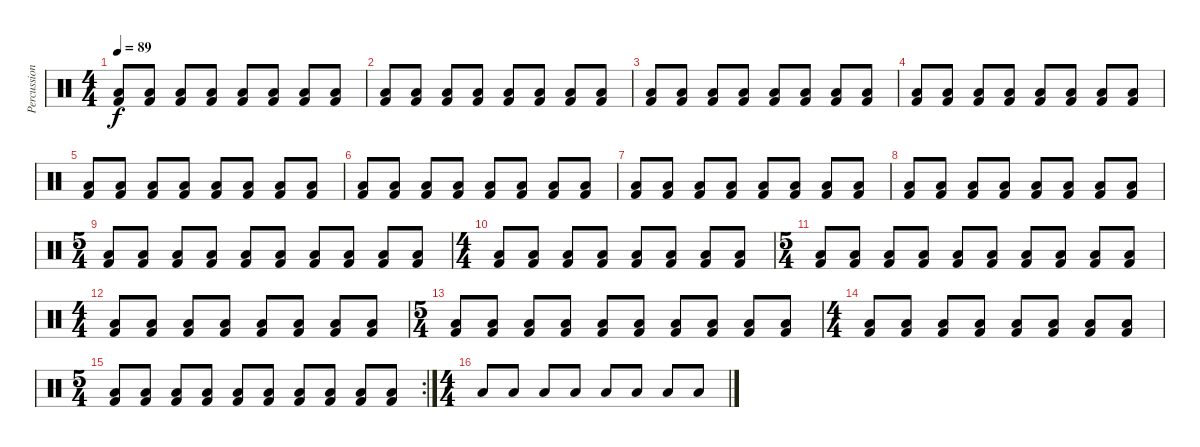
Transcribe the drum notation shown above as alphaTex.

\track ("Percussion" "Percussion") {instrument percussion}
\staff {score}
\articulation defaults
\ts (4 4)
\tempo 89
\clef neutral
\ks c
("Kick (hit) 2" "Low Floor Tom (hit)").8{dy f} ("Kick (hit) 2" "Low Floor Tom (hit)").8 ("Kick (hit) 2" "Low Floor Tom (hit)").8 ("Kick (hit) 2" "Low Floor Tom (hit)").8 ("Kick (hit) 2" "Low Floor Tom (hit)").8 ("Kick (hit) 2" "Low Floor Tom (hit)").8 ("Kick (hit) 2" "Low Floor Tom (hit)").8 ("Kick (hit) 2" "Low Floor Tom (hit)").8 |
("Kick (hit) 2" "Low Floor Tom (hit)").8 ("Kick (hit) 2" "Low Floor Tom (hit)").8 ("Kick (hit) 2" "Low Floor Tom (hit)").8 ("Kick (hit) 2" "Low Floor Tom (hit)").8 ("Kick (hit) 2" "Low Floor Tom (hit)").8 ("Kick (hit) 2" "Low Floor Tom (hit)").8 ("Kick (hit) 2" "Low Floor Tom (hit)").8 ("Kick (hit) 2" "Low Floor Tom (hit)").8 |
("Kick (hit) 2" "Low Floor Tom (hit)").8 ("Kick (hit) 2" "Low Floor Tom (hit)").8 ("Kick (hit) 2" "Low Floor Tom (hit)").8 ("Kick (hit) 2" "Low Floor Tom (hit)").8 ("Kick (hit) 2" "Low Floor Tom (hit)").8 ("Kick (hit) 2" "Low Floor Tom (hit)").8 ("Kick (hit) 2" "Low Floor Tom (hit)").8 ("Kick (hit) 2" "Low Floor Tom (hit)").8 |
("Kick (hit) 2" "Low Floor Tom (hit)").8 ("Kick (hit) 2" "Low Floor Tom (hit)").8 ("Kick (hit) 2" "Low Floor Tom (hit)").8 ("Kick (hit) 2" "Low Floor Tom (hit)").8 ("Kick (hit) 2" "Low Floor Tom (hit)").8 ("Kick (hit) 2" "Low Floor Tom (hit)").8 ("Kick (hit) 2" "Low Floor Tom (hit)").8 ("Kick (hit) 2" "Low Floor Tom (hit)").8 |
("Kick (hit) 2" "Low Floor Tom (hit)").8 ("Kick (hit) 2" "Low Floor Tom (hit)").8 ("Kick (hit) 2" "Low Floor Tom (hit)").8 ("Kick (hit) 2" "Low Floor Tom (hit)").8 ("Kick (hit) 2" "Low Floor Tom (hit)").8 ("Kick (hit) 2" "Low Floor Tom (hit)").8 ("Kick (hit) 2" "Low Floor Tom (hit)").8 ("Kick (hit) 2" "Low Floor Tom (hit)").8 |
("Kick (hit) 2" "Low Floor Tom (hit)").8 ("Kick (hit) 2" "Low Floor Tom (hit)").8 ("Kick (hit) 2" "Low Floor Tom (hit)").8 ("Kick (hit) 2" "Low Floor Tom (hit)").8 ("Kick (hit) 2" "Low Floor Tom (hit)").8 ("Kick (hit) 2" "Low Floor Tom (hit)").8 ("Kick (hit) 2" "Low Floor Tom (hit)").8 ("Kick (hit) 2" "Low Floor Tom (hit)").8 |
("Kick (hit) 2" "Low Floor Tom (hit)").8 ("Kick (hit) 2" "Low Floor Tom (hit)").8 ("Kick (hit) 2" "Low Floor Tom (hit)").8 ("Kick (hit) 2" "Low Floor Tom (hit)").8 ("Kick (hit) 2" "Low Floor Tom (hit)").8 ("Kick (hit) 2" "Low Floor Tom (hit)").8 ("Kick (hit) 2" "Low Floor Tom (hit)").8 ("Kick (hit) 2" "Low Floor Tom (hit)").8 |
("Kick (hit) 2" "Low Floor Tom (hit)").8 ("Kick (hit) 2" "Low Floor Tom (hit)").8 ("Kick (hit) 2" "Low Floor Tom (hit)").8 ("Kick (hit) 2" "Low Floor Tom (hit)").8 ("Kick (hit) 2" "Low Floor Tom (hit)").8 ("Kick (hit) 2" "Low Floor Tom (hit)").8 ("Kick (hit) 2" "Low Floor Tom (hit)").8 ("Kick (hit) 2" "Low Floor Tom (hit)").8 |
\ts (5 4)
("Kick (hit) 2" "Low Floor Tom (hit)").8 ("Kick (hit) 2" "Low Floor Tom (hit)").8 ("Kick (hit) 2" "Low Floor Tom (hit)").8 ("Kick (hit) 2" "Low Floor Tom (hit)").8 ("Kick (hit) 2" "Low Floor Tom (hit)").8 ("Kick (hit) 2" "Low Floor Tom (hit)").8 ("Kick (hit) 2" "Low Floor Tom (hit)").8 ("Kick (hit) 2" "Low Floor Tom (hit)").8 ("Kick (hit) 2" "Low Floor Tom (hit)").8 ("Kick (hit) 2" "Low Floor Tom (hit)").8 |
\ts (4 4)
("Kick (hit) 2" "Low Floor Tom (hit)").8 ("Kick (hit) 2" "Low Floor Tom (hit)").8 ("Kick (hit) 2" "Low Floor Tom (hit)").8 ("Kick (hit) 2" "Low Floor Tom (hit)").8 ("Kick (hit) 2" "Low Floor Tom (hit)").8 ("Kick (hit) 2" "Low Floor Tom (hit)").8 ("Kick (hit) 2" "Low Floor Tom (hit)").8 ("Kick (hit) 2" "Low Floor Tom (hit)").8 |
\ts (5 4)
("Kick (hit) 2" "Low Floor Tom (hit)").8 ("Kick (hit) 2" "Low Floor Tom (hit)").8 ("Kick (hit) 2" "Low Floor Tom (hit)").8 ("Kick (hit) 2" "Low Floor Tom (hit)").8 ("Kick (hit) 2" "Low Floor Tom (hit)").8 ("Kick (hit) 2" "Low Floor Tom (hit)").8 ("Kick (hit) 2" "Low Floor Tom (hit)").8 ("Kick (hit) 2" "Low Floor Tom (hit)").8 ("Kick (hit) 2" "Low Floor Tom (hit)").8 ("Kick (hit) 2" "Low Floor Tom (hit)").8 |
\ts (4 4)
("Kick (hit) 2" "Low Floor Tom (hit)").8 ("Kick (hit) 2" "Low Floor Tom (hit)").8 ("Kick (hit) 2" "Low Floor Tom (hit)").8 ("Kick (hit) 2" "Low Floor Tom (hit)").8 ("Kick (hit) 2" "Low Floor Tom (hit)").8 ("Kick (hit) 2" "Low Floor Tom (hit)").8 ("Kick (hit) 2" "Low Floor Tom (hit)").8 ("Kick (hit) 2" "Low Floor Tom (hit)").8 |
\ts (5 4)
("Kick (hit) 2" "Low Floor Tom (hit)").8 ("Kick (hit) 2" "Low Floor Tom (hit)").8 ("Kick (hit) 2" "Low Floor Tom (hit)").8 ("Kick (hit) 2" "Low Floor Tom (hit)").8 ("Kick (hit) 2" "Low Floor Tom (hit)").8 ("Kick (hit) 2" "Low Floor Tom (hit)").8 ("Kick (hit) 2" "Low Floor Tom (hit)").8 ("Kick (hit) 2" "Low Floor Tom (hit)").8 ("Kick (hit) 2" "Low Floor Tom (hit)").8 ("Kick (hit) 2" "Low Floor Tom (hit)").8 |
\ts (4 4)
("Kick (hit) 2" "Low Floor Tom (hit)").8 ("Kick (hit) 2" "Low Floor Tom (hit)").8 ("Kick (hit) 2" "Low Floor Tom (hit)").8 ("Kick (hit) 2" "Low Floor Tom (hit)").8 ("Kick (hit) 2" "Low Floor Tom (hit)").8 ("Kick (hit) 2" "Low Floor Tom (hit)").8 ("Kick (hit) 2" "Low Floor Tom (hit)").8 ("Kick (hit) 2" "Low Floor Tom (hit)").8 |
\rc 2
\ts (5 4)
("Kick (hit) 2" "Low Floor Tom (hit)").8 ("Kick (hit) 2" "Low Floor Tom (hit)").8 ("Kick (hit) 2" "Low Floor Tom (hit)").8 ("Kick (hit) 2" "Low Floor Tom (hit)").8 ("Kick (hit) 2" "Low Floor Tom (hit)").8 ("Kick (hit) 2" "Low Floor Tom (hit)").8 ("Kick (hit) 2" "Low Floor Tom (hit)").8 ("Kick (hit) 2" "Low Floor Tom (hit)").8 ("Kick (hit) 2" "Low Floor Tom (hit)").8 ("Kick (hit) 2" "Low Floor Tom (hit)").8 |
\ts (4 4)
"Low Floor Tom (hit)".8 "Low Floor Tom (hit)".8 "Low Floor Tom (hit)".8 "Low Floor Tom (hit)".8 "Low Floor Tom (hit)".8 "Low Floor Tom (hit)".8 "Low Floor Tom (hit)".8 "Low Floor Tom (hit)".8
